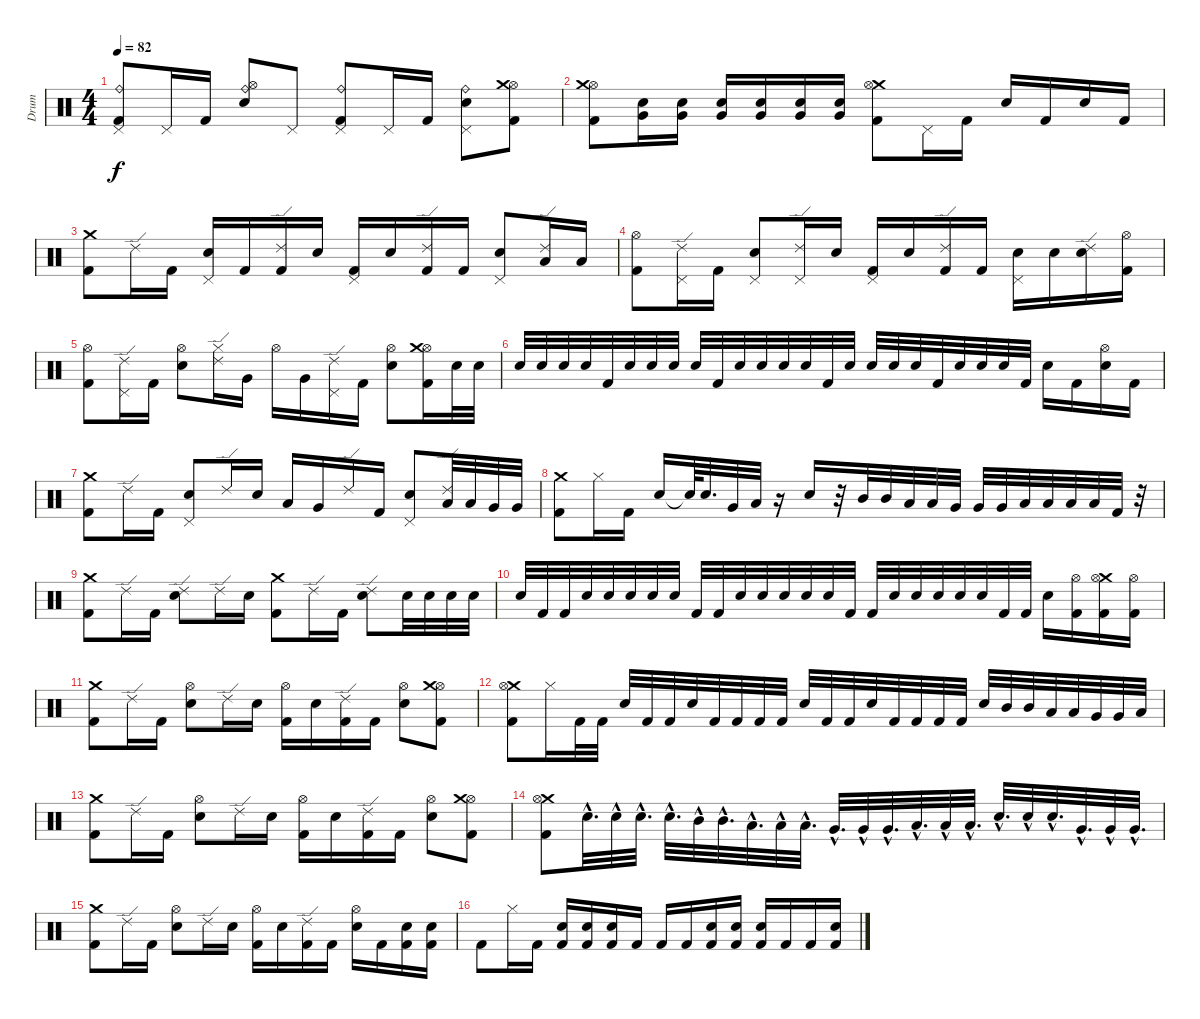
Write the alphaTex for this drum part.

\track ("Drum" "Drum") {instrument percussion}
\staff {score}
\articulation defaults
\ts (4 4)
\tempo 82
\clef neutral
\ks c
("Pedal Hi-Hat (hit)" "Kick (hit) 2" "Ride (bell)").8{dy f} "Pedal Hi-Hat (hit)".16 "Kick (hit) 2".16 ("Hi-Hat (open)" "Electric Snare (hit)" "Ride (bell)").8 "Pedal Hi-Hat (hit)".8 ("Pedal Hi-Hat (hit)" "Kick (hit) 2" "Ride (bell)").8 "Pedal Hi-Hat (hit)".16 "Kick (hit) 2".16 ("Pedal Hi-Hat (hit)" "Electric Snare (hit)" "Ride (bell)").8 ("Hi-Hat (open)" "Crash medium (hit)" "Kick (hit) 2").8 |
("Hi-Hat (open)" "Crash medium (hit)" "Kick (hit) 2").8 ("Very Low Tom (hit)" "Electric Snare (hit)").16 ("Very Low Tom (hit)" "Electric Snare (hit)").16 ("Very Low Tom (hit)" "Electric Snare (hit)").16 ("Very Low Tom (hit)" "Electric Snare (hit)").16 ("Very Low Tom (hit)" "Electric Snare (hit)").16 ("Very Low Tom (hit)" "Electric Snare (hit)").16 ("Crash medium (hit)" "Hi-Hat (open)" "Kick (hit) 2").8 "Pedal Hi-Hat (hit)".16 "Kick (hit) 2".16 "Electric Snare (hit)".16 "Kick (hit) 2".16 "Electric Snare (hit)".16 "Kick (hit) 2".16 |
("Crash medium (hit)" "Kick (hit) 2").8 "Ride (edge) 2".16 "Kick (hit) 2".16 ("Pedal Hi-Hat (hit)" "Electric Snare (hit)").16 "Kick (hit) 2".16 ("Ride (edge) 2" "Kick (hit) 2").16 "Electric Snare (hit)".16 ("Pedal Hi-Hat (hit)" "Kick (hit) 2").16 "Electric Snare (hit)".16 ("Ride (edge) 2" "Kick (hit) 2").16 "Kick (hit) 2".16 ("Pedal Hi-Hat (hit)" "Electric Snare (hit)").8 ("Ride (edge) 2" "Low Tom (hit)").16 "Low Tom (hit)".16 |
("Hi-Hat (open)" "Kick (hit) 2").8 ("Ride (edge) 2" "Pedal Hi-Hat (hit)").16 "Kick (hit) 2".16 ("Pedal Hi-Hat (hit)" "Electric Snare (hit)").8 ("Ride (edge) 2" "Pedal Hi-Hat (hit)").16 "Electric Snare (hit)".16 ("Pedal Hi-Hat (hit)" "Kick (hit) 2").16 "Electric Snare (hit)".16 ("Ride (edge) 2" "Kick (hit) 2").16 "Kick (hit) 2".16 ("Pedal Hi-Hat (hit)" "Electric Snare (hit)").16 "Electric Snare (hit)".16 ("Ride (edge) 2" "Electric Snare (hit)").16 ("Hi-Hat (open)" "Kick (hit) 2").16 |
("Hi-Hat (open)" "Kick (hit) 2").8 ("Ride (edge) 2" "Pedal Hi-Hat (hit)").16 "Kick (hit) 2".16 ("Hi-Hat (open)" "Electric Snare (hit)").8 ("Ride (edge) 2" "Hi-Hat (closed)").16 "Very Low Tom (hit)".16 "Hi-Hat (open)".16 "Very Low Tom (hit)".16 ("Ride (edge) 2" "Pedal Hi-Hat (hit)").16 "Kick (hit) 2".16 ("Hi-Hat (open)" "Electric Snare (hit)").8 ("Hi-Hat (open)" "Crash medium (hit)" "Kick (hit) 2").16 "Electric Snare (hit)".32 "Electric Snare (hit)".32 |
"Electric Snare (hit)".32 "Electric Snare (hit)".32 "Electric Snare (hit)".32 "Electric Snare (hit)".32 "Kick (hit) 2".32 "Electric Snare (hit)".32 "Electric Snare (hit)".32 "Electric Snare (hit)".32 "Electric Snare (hit)".32 "Kick (hit) 2".32 "Electric Snare (hit)".32 "Electric Snare (hit)".32 "Electric Snare (hit)".32 "Electric Snare (hit)".32 "Kick (hit) 2".32 "Electric Snare (hit)".32 "Electric Snare (hit)".32 "Electric Snare (hit)".32 "Electric Snare (hit)".32 "Kick (hit) 2".32 "Electric Snare (hit)".32 "Electric Snare (hit)".32 "Electric Snare (hit)".32 "Kick (hit) 2".32 "Electric Snare (hit)".16 "Kick (hit) 2".16 ("Hi-Hat (open)" "Electric Snare (hit)").16 "Kick (hit) 2".16 |
("Crash medium (hit)" "Kick (hit) 2").8 "Ride (edge) 2".16 "Kick (hit) 2".16 ("Pedal Hi-Hat (hit)" "Electric Snare (hit)").8 "Ride (edge) 2".16 "Electric Snare (hit)".16 "Low Tom (hit)".16 "Very Low Tom (hit)".16 "Ride (edge) 2".16 "Kick (hit) 2".16 ("Pedal Hi-Hat (hit)" "Electric Snare (hit)").8 ("Ride (edge) 2" "Low Tom (hit)").32 "Low Tom (hit)".32 "Very Low Tom (hit)".32 "Very Low Tom (hit)".32 |
("Crash medium (hit)" "Kick (hit) 2").8 "Hi-Hat (closed)".16 "Kick (hit) 2".16 "Electric Snare (hit)".16 "Snare (hit)"{t}.64 "Electric Snare (hit)".32{d} "Very Low Tom (hit)".32 "Low Floor Tom (hit)".32 r.16 "Electric Snare (hit)".16 r.32 "Mid Tom (hit)".32 "Mid Tom (hit)".32 "Low Tom (hit)".32 "Low Tom (hit)".32 "Very Low Tom (hit)".32 "Very Low Tom (hit)".32 "Very Low Tom (hit)".32 "Low Floor Tom (hit)".32 "Low Floor Tom (hit)".32 "Low Floor Tom (hit)".32 "Low Floor Tom (hit)".32 "Kick (hit) 2".32 r.32 |
("Crash medium (hit)" "Kick (hit) 2").8 "Ride (edge) 2".16 "Kick (hit) 2".16 ("Electric Snare (hit)" "Ride (edge) 2").8 "Ride (edge) 2".16 "Electric Snare (hit)".16 ("Crash medium (hit)" "Kick (hit) 2").8 "Ride (edge) 2".16 "Kick (hit) 2".16 ("Electric Snare (hit)" "Ride (edge) 2").8 "Electric Snare (hit)".32 "Electric Snare (hit)".32 "Electric Snare (hit)".32 "Electric Snare (hit)".32 |
"Electric Snare (hit)".32 "Kick (hit) 2".32 "Kick (hit) 2".32 "Electric Snare (hit)".32 "Electric Snare (hit)".32 "Electric Snare (hit)".32 "Electric Snare (hit)".32 "Electric Snare (hit)".32 "Kick (hit) 2".32 "Kick (hit) 2".32 "Electric Snare (hit)".32 "Electric Snare (hit)".32 "Electric Snare (hit)".32 "Electric Snare (hit)".32 "Electric Snare (hit)".32 "Kick (hit) 2".32 "Kick (hit) 2".32 "Electric Snare (hit)".32 "Electric Snare (hit)".32 "Electric Snare (hit)".32 "Electric Snare (hit)".32 "Electric Snare (hit)".32 "Kick (hit) 2".32 "Kick (hit) 2".32 "Electric Snare (hit)".16 ("Hi-Hat (open)" "Kick (hit) 2").16 ("Crash medium (hit)" "Hi-Hat (open)" "Kick (hit) 2").16 ("Hi-Hat (open)" "Kick (hit) 2").16 |
("Crash medium (hit)" "Kick (hit) 2").8 "Ride (edge) 2".16 "Kick (hit) 2".16 ("Hi-Hat (open)" "Electric Snare (hit)").8 "Ride (edge) 2".16 "Electric Snare (hit)".16 ("Hi-Hat (open)" "Kick (hit) 2").16 "Electric Snare (hit)".16 ("Ride (edge) 2" "Kick (hit) 2").16 "Kick (hit) 2".16 ("Hi-Hat (open)" "Electric Snare (hit)").8 ("Hi-Hat (open)" "Kick (hit) 2" "Crash medium (hit)").8 |
("Crash medium (hit)" "Hi-Hat (open)" "Kick (hit) 2").8 "Hi-Hat (closed)".16 "Kick (hit) 2".32 "Kick (hit) 2".32 "Electric Snare (hit)".32 "Kick (hit) 2".32 "Kick (hit) 2".32 "Electric Snare (hit)".32 "Kick (hit) 2".32 "Kick (hit) 2".32 "Kick (hit) 2".32 "Kick (hit) 2".32 "Electric Snare (hit)".32 "Kick (hit) 2".32 "Kick (hit) 2".32 "Electric Snare (hit)".32 "Kick (hit) 2".32 "Kick (hit) 2".32 "Kick (hit) 2".32 "Kick (hit) 2".32 "Electric Snare (hit)".32 "Mid Tom (hit)".32 "Mid Tom (hit)".32 "Low Tom (hit)".32 "Low Tom (hit)".32 "Very Low Tom (hit)".32 "Very Low Tom (hit)".32 "Low Floor Tom (hit)".32 |
("Crash medium (hit)" "Kick (hit) 2").8 "Ride (edge) 2".16 "Kick (hit) 2".16 ("Hi-Hat (open)" "Electric Snare (hit)").8 "Ride (edge) 2".16 "Electric Snare (hit)".16 ("Hi-Hat (open)" "Kick (hit) 2").16 "Electric Snare (hit)".16 ("Ride (edge) 2" "Kick (hit) 2").16 "Kick (hit) 2".16 ("Hi-Hat (open)" "Electric Snare (hit)").8 ("Hi-Hat (open)" "Kick (hit) 2" "Crash medium (hit)").8 |
("Crash medium (hit)" "Hi-Hat (open)" "Kick (hit) 2").8 "Electric Snare (hit)"{hac}.32{d} "Electric Snare (hit)"{hac}.32 "Electric Snare (hit)"{hac}.32{d} "Electric Snare (hit)"{hac}.32{d} "Mid Tom (hit)"{hac}.32 "Mid Tom (hit)"{hac}.32{d} "Low Tom (hit)"{hac}.32{d} "Low Tom (hit)"{hac}.32 "Low Tom (hit)"{hac}.32{d} "Very Low Tom (hit)"{hac}.32{d} "Very Low Tom (hit)"{hac}.32 "Very Low Tom (hit)"{hac}.32{d} "Low Floor Tom (hit)"{hac}.32{d} "Low Floor Tom (hit)"{hac}.32 "Low Floor Tom (hit)"{hac}.32{d} "Electric Snare (hit)"{hac}.32{d} "Electric Snare (hit)"{hac}.32 "Electric Snare (hit)"{hac}.32{d} "Very Low Tom (hit)"{hac}.32{d} "Very Low Tom (hit)"{hac}.32 "Very Low Tom (hit)"{hac}.32{d} |
("Crash medium (hit)" "Kick (hit) 2").8 "Ride (edge) 2".16 "Kick (hit) 2".16 ("Hi-Hat (open)" "Electric Snare (hit)").8 "Ride (edge) 2".16 "Electric Snare (hit)".16 ("Hi-Hat (open)" "Kick (hit) 2").16 "Electric Snare (hit)".16 ("Ride (edge) 2" "Kick (hit) 2").16 "Kick (hit) 2".16 ("Hi-Hat (open)" "Electric Snare (hit)").16 "Kick (hit) 2".16 ("Kick (hit) 2" "Electric Snare (hit)").16 ("Kick (hit) 2" "Electric Snare (hit)").16 |
"Kick (hit) 2".8 "Hi-Hat (closed)".16 "Kick (hit) 2".16 ("Electric Snare (hit)" "Kick (hit) 2").16 ("Electric Snare (hit)" "Kick (hit) 2").16 ("Electric Snare (hit)" "Kick (hit) 2").16 "Kick (hit) 2".16 "Kick (hit) 2".16 "Kick (hit) 2".16 ("Electric Snare (hit)" "Kick (hit) 2").16 ("Electric Snare (hit)" "Kick (hit) 2").16 ("Electric Snare (hit)" "Kick (hit) 2").16 "Kick (hit) 2".16 "Kick (hit) 2".16 ("Electric Snare (hit)" "Kick (hit) 2").16
